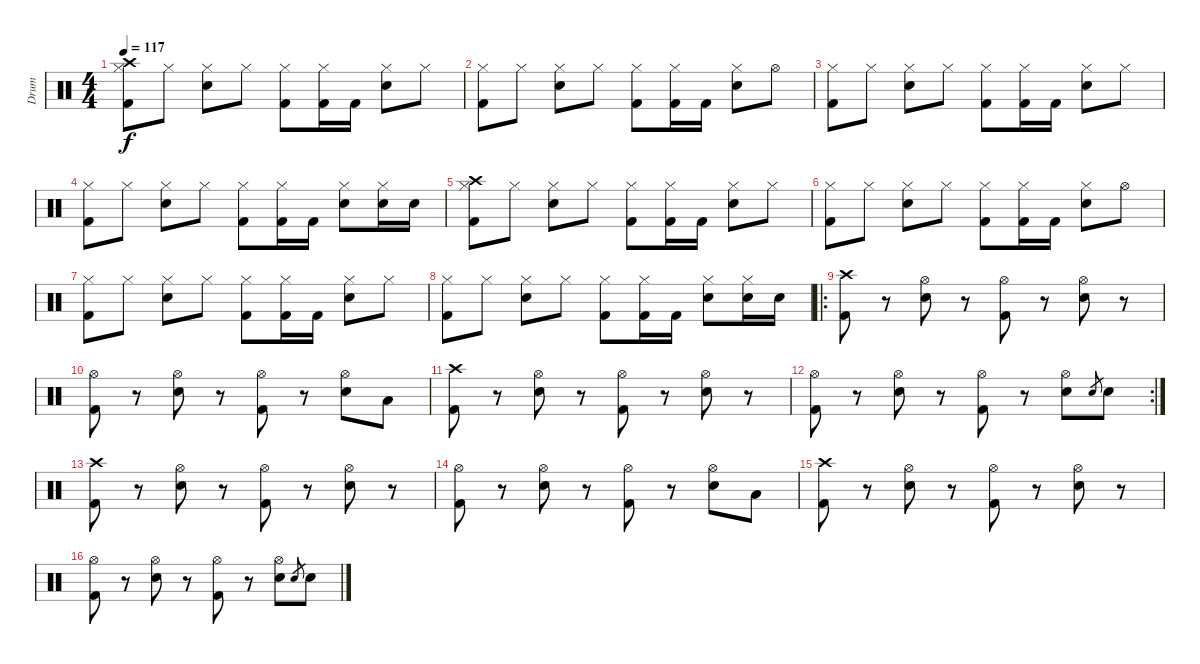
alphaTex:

\track ("Drum" "Drum") {instrument percussion}
\staff {score}
\articulation defaults
\ts (4 4)
\tempo 117
\clef neutral
\ks c
("Crash high (hit)" "Hi-Hat (closed)" "Kick (hit) 2").8{dy f} "Hi-Hat (closed)".8 ("Hi-Hat (closed)" "Electric Snare (hit)").8 "Hi-Hat (closed)".8 ("Hi-Hat (closed)" "Kick (hit) 2").8 ("Hi-Hat (closed)" "Kick (hit) 2").16 "Kick (hit) 2".16 ("Hi-Hat (closed)" "Electric Snare (hit)").8 "Hi-Hat (closed)".8 |
("Hi-Hat (closed)" "Kick (hit) 2").8 "Hi-Hat (closed)".8 ("Hi-Hat (closed)" "Electric Snare (hit)").8 "Hi-Hat (closed)".8 ("Hi-Hat (closed)" "Kick (hit) 2").8 ("Hi-Hat (closed)" "Kick (hit) 2").16 "Kick (hit) 2".16 ("Hi-Hat (closed)" "Electric Snare (hit)").8 "Hi-Hat (open)".8 |
("Hi-Hat (closed)" "Kick (hit) 2").8 "Hi-Hat (closed)".8 ("Hi-Hat (closed)" "Electric Snare (hit)").8 "Hi-Hat (closed)".8 ("Hi-Hat (closed)" "Kick (hit) 2").8 ("Hi-Hat (closed)" "Kick (hit) 2").16 "Kick (hit) 2".16 ("Hi-Hat (closed)" "Electric Snare (hit)").8 "Hi-Hat (closed)".8 |
("Hi-Hat (closed)" "Kick (hit) 2").8 "Hi-Hat (closed)".8 ("Hi-Hat (closed)" "Electric Snare (hit)").8 "Hi-Hat (closed)".8 ("Hi-Hat (closed)" "Kick (hit) 2").8 ("Hi-Hat (closed)" "Kick (hit) 2").16 "Kick (hit) 2".16 ("Hi-Hat (closed)" "Electric Snare (hit)").8 ("Hi-Hat (closed)" "Electric Snare (hit)").16 "Electric Snare (hit)".16 |
("Crash high (hit)" "Hi-Hat (closed)" "Kick (hit) 2").8 "Hi-Hat (closed)".8 ("Hi-Hat (closed)" "Electric Snare (hit)").8 "Hi-Hat (closed)".8 ("Hi-Hat (closed)" "Kick (hit) 2").8 ("Hi-Hat (closed)" "Kick (hit) 2").16 "Kick (hit) 2".16 ("Hi-Hat (closed)" "Electric Snare (hit)").8 "Hi-Hat (closed)".8 |
("Hi-Hat (closed)" "Kick (hit) 2").8 "Hi-Hat (closed)".8 ("Hi-Hat (closed)" "Electric Snare (hit)").8 "Hi-Hat (closed)".8 ("Hi-Hat (closed)" "Kick (hit) 2").8 ("Hi-Hat (closed)" "Kick (hit) 2").16 "Kick (hit) 2".16 ("Hi-Hat (closed)" "Electric Snare (hit)").8 "Hi-Hat (open)".8 |
("Hi-Hat (closed)" "Kick (hit) 2").8 "Hi-Hat (closed)".8 ("Hi-Hat (closed)" "Electric Snare (hit)").8 "Hi-Hat (closed)".8 ("Hi-Hat (closed)" "Kick (hit) 2").8 ("Hi-Hat (closed)" "Kick (hit) 2").16 "Kick (hit) 2".16 ("Hi-Hat (closed)" "Electric Snare (hit)").8 "Hi-Hat (closed)".8 |
("Hi-Hat (closed)" "Kick (hit) 2").8 "Hi-Hat (closed)".8 ("Hi-Hat (closed)" "Electric Snare (hit)").8 "Hi-Hat (closed)".8 ("Hi-Hat (closed)" "Kick (hit) 2").8 ("Hi-Hat (closed)" "Kick (hit) 2").16 "Kick (hit) 2".16 ("Hi-Hat (closed)" "Electric Snare (hit)").8 ("Hi-Hat (closed)" "Electric Snare (hit)").16 "Electric Snare (hit)".16 |
\ro
("Crash high (hit)" "Kick (hit) 2").8 r.8 ("Hi-Hat (open)" "Electric Snare (hit)").8 r.8 ("Hi-Hat (open)" "Kick (hit) 2").8 r.8 ("Hi-Hat (open)" "Electric Snare (hit)").8 r.8 |
("Hi-Hat (open)" "Kick (hit) 2").8 r.8 ("Hi-Hat (open)" "Electric Snare (hit)").8 r.8 ("Hi-Hat (open)" "Kick (hit) 2").8 r.8 ("Hi-Hat (open)" "Electric Snare (hit)").8 "Low Tom (hit)".8 |
("Crash high (hit)" "Kick (hit) 2").8 r.8 ("Hi-Hat (open)" "Electric Snare (hit)").8 r.8 ("Hi-Hat (open)" "Kick (hit) 2").8 r.8 ("Hi-Hat (open)" "Electric Snare (hit)").8 r.8 |
\rc 2
("Hi-Hat (open)" "Kick (hit) 2").8 r.8 ("Hi-Hat (open)" "Electric Snare (hit)").8 r.8 ("Hi-Hat (open)" "Kick (hit) 2").8 r.8 ("Hi-Hat (open)" "Electric Snare (hit)").8 "Electric Snare (hit)".8{gr} "Electric Snare (hit)".8 |
("Crash high (hit)" "Kick (hit) 2").8 r.8 ("Hi-Hat (open)" "Electric Snare (hit)").8 r.8 ("Hi-Hat (open)" "Kick (hit) 2").8 r.8 ("Hi-Hat (open)" "Electric Snare (hit)").8 r.8 |
("Hi-Hat (open)" "Kick (hit) 2").8 r.8 ("Hi-Hat (open)" "Electric Snare (hit)").8 r.8 ("Hi-Hat (open)" "Kick (hit) 2").8 r.8 ("Hi-Hat (open)" "Electric Snare (hit)").8 "Low Tom (hit)".8 |
("Crash high (hit)" "Kick (hit) 2").8 r.8 ("Hi-Hat (open)" "Electric Snare (hit)").8 r.8 ("Hi-Hat (open)" "Kick (hit) 2").8 r.8 ("Hi-Hat (open)" "Electric Snare (hit)").8 r.8 |
("Hi-Hat (open)" "Kick (hit) 2").8 r.8 ("Hi-Hat (open)" "Electric Snare (hit)").8 r.8 ("Hi-Hat (open)" "Kick (hit) 2").8 r.8 ("Hi-Hat (open)" "Electric Snare (hit)").8 "Electric Snare (hit)".8{gr} "Electric Snare (hit)".8
